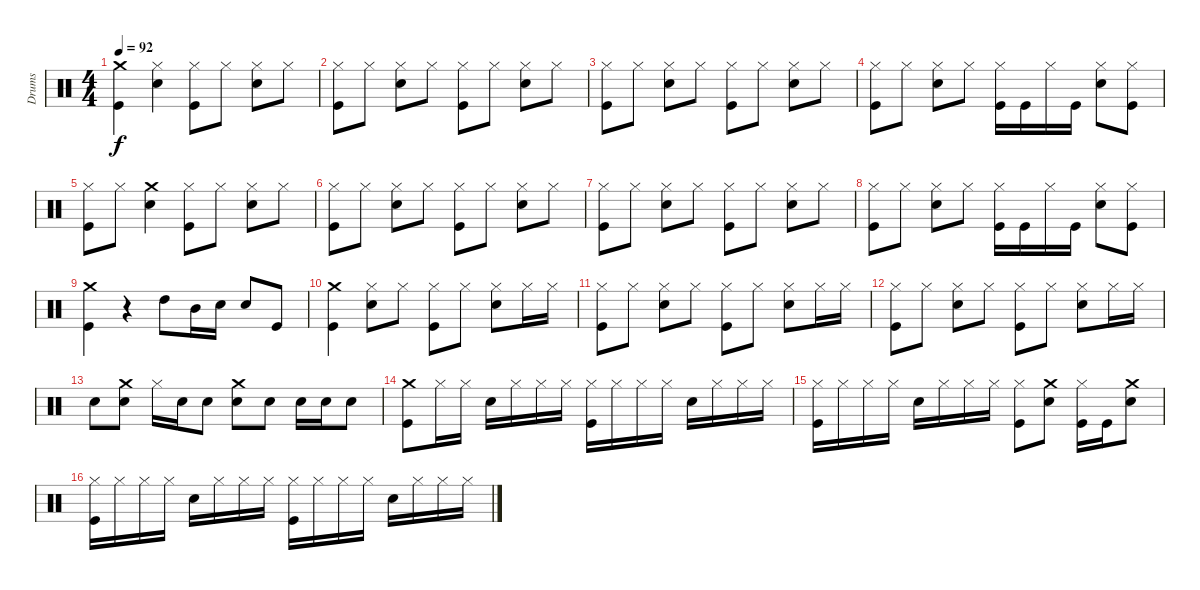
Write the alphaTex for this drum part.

\track ("Drums" "Drums") {instrument percussion}
\staff {score}
\articulation defaults
\ts (4 4)
\tempo 92
\clef neutral
\ks c
("Kick (hit)" "Crash medium (hit)").4{dy f} ("Electric Snare (hit)" "Hi-Hat (closed)").4 ("Kick (hit)" "Hi-Hat (closed)").8 "Hi-Hat (closed)".8 ("Electric Snare (hit)" "Hi-Hat (closed)").8 "Hi-Hat (closed)".8 |
("Kick (hit)" "Hi-Hat (closed)").8 "Hi-Hat (closed)".8 ("Electric Snare (hit)" "Hi-Hat (closed)").8 "Hi-Hat (closed)".8 ("Kick (hit)" "Hi-Hat (closed)").8 "Hi-Hat (closed)".8 ("Electric Snare (hit)" "Hi-Hat (closed)").8 "Hi-Hat (closed)".8 |
("Kick (hit)" "Hi-Hat (closed)").8 "Hi-Hat (closed)".8 ("Electric Snare (hit)" "Hi-Hat (closed)").8 "Hi-Hat (closed)".8 ("Kick (hit)" "Hi-Hat (closed)").8 "Hi-Hat (closed)".8 ("Electric Snare (hit)" "Hi-Hat (closed)").8 "Hi-Hat (closed)".8 |
("Kick (hit)" "Hi-Hat (closed)").8 "Hi-Hat (closed)".8 ("Electric Snare (hit)" "Hi-Hat (closed)").8 "Hi-Hat (closed)".8 ("Kick (hit)" "Hi-Hat (closed)").16 "Kick (hit)".16 "Hi-Hat (closed)".16 "Kick (hit)".16 ("Electric Snare (hit)" "Hi-Hat (closed)").8 ("Kick (hit)" "Hi-Hat (closed)").8 |
("Kick (hit)" "Hi-Hat (closed)").8 "Hi-Hat (closed)".8 ("Electric Snare (hit)" "Crash medium (hit)").4 ("Kick (hit)" "Hi-Hat (closed)").8 "Hi-Hat (closed)".8 ("Electric Snare (hit)" "Hi-Hat (closed)").8 "Hi-Hat (closed)".8 |
("Kick (hit)" "Hi-Hat (closed)").8 "Hi-Hat (closed)".8 ("Electric Snare (hit)" "Hi-Hat (closed)").8 "Hi-Hat (closed)".8 ("Kick (hit)" "Hi-Hat (closed)").8 "Hi-Hat (closed)".8 ("Electric Snare (hit)" "Hi-Hat (closed)").8 "Hi-Hat (closed)".8 |
("Kick (hit)" "Hi-Hat (closed)").8 "Hi-Hat (closed)".8 ("Electric Snare (hit)" "Hi-Hat (closed)").8 "Hi-Hat (closed)".8 ("Kick (hit)" "Hi-Hat (closed)").8 "Hi-Hat (closed)".8 ("Electric Snare (hit)" "Hi-Hat (closed)").8 "Hi-Hat (closed)".8 |
("Kick (hit)" "Hi-Hat (closed)").8 "Hi-Hat (closed)".8 ("Electric Snare (hit)" "Hi-Hat (closed)").8 "Hi-Hat (closed)".8 ("Kick (hit)" "Hi-Hat (closed)").16 "Kick (hit)".16 "Hi-Hat (closed)".16 "Kick (hit)".16 ("Electric Snare (hit)" "Hi-Hat (closed)").8 ("Kick (hit)" "Hi-Hat (closed)").8 |
("Kick (hit)" "Crash medium (hit)").4 r.4 "High Tom (hit)".8 "Mid Tom (hit)".16 "Electric Snare (hit)".16 "Electric Snare (hit)".8 "Kick (hit)".8 |
("Kick (hit)" "Crash medium (hit)").4 ("Electric Snare (hit)" "Hi-Hat (closed)").8 "Hi-Hat (closed)".8 ("Kick (hit)" "Hi-Hat (closed)").8 "Hi-Hat (closed)".8 ("Electric Snare (hit)" "Hi-Hat (closed)").8 "Hi-Hat (closed)".16 "Hi-Hat (closed)".16 |
("Kick (hit)" "Hi-Hat (closed)").8 "Hi-Hat (closed)".8 ("Electric Snare (hit)" "Hi-Hat (closed)").8 "Hi-Hat (closed)".8 ("Kick (hit)" "Hi-Hat (closed)").8 "Hi-Hat (closed)".8 ("Electric Snare (hit)" "Hi-Hat (closed)").8 "Hi-Hat (closed)".16 "Hi-Hat (closed)".16 |
("Kick (hit)" "Hi-Hat (closed)").8 "Hi-Hat (closed)".8 ("Electric Snare (hit)" "Hi-Hat (closed)").8 "Hi-Hat (closed)".8 ("Kick (hit)" "Hi-Hat (closed)").8 "Hi-Hat (closed)".8 ("Electric Snare (hit)" "Hi-Hat (closed)").8 "Hi-Hat (closed)".16 "Hi-Hat (closed)".16 |
"Electric Snare (hit)".8 ("Electric Snare (hit)" "Crash medium (hit)").8 "Hi-Hat (closed)".16 "Electric Snare (hit)".16 "Electric Snare (hit)".8 ("Electric Snare (hit)" "Crash medium (hit)").8 "Electric Snare (hit)".8 "Electric Snare (hit)".16 "Electric Snare (hit)".16 "Electric Snare (hit)".8 |
("Kick (hit)" "Crash medium (hit)").8 "Hi-Hat (closed)".16 "Hi-Hat (closed)".16 "Electric Snare (hit)".16 "Hi-Hat (closed)".16 "Hi-Hat (closed)".16 "Hi-Hat (closed)".16 ("Kick (hit)" "Hi-Hat (closed)").16 "Hi-Hat (closed)".16 "Hi-Hat (closed)".16 "Hi-Hat (closed)".16 "Electric Snare (hit)".16 "Hi-Hat (closed)".16 "Hi-Hat (closed)".16 "Hi-Hat (closed)".16 |
("Kick (hit)" "Hi-Hat (closed)").16 "Hi-Hat (closed)".16 "Hi-Hat (closed)".16 "Hi-Hat (closed)".16 "Electric Snare (hit)".16 "Hi-Hat (closed)".16 "Hi-Hat (closed)".16 "Hi-Hat (closed)".16 ("Kick (hit)" "Hi-Hat (closed)").8 ("Electric Snare (hit)" "Crash medium (hit)").8 ("Kick (hit)" "Hi-Hat (closed)").16 "Kick (hit)".16 ("Electric Snare (hit)" "Crash medium (hit)").8 |
("Kick (hit)" "Hi-Hat (closed)").16 "Hi-Hat (closed)".16 "Hi-Hat (closed)".16 "Hi-Hat (closed)".16 "Electric Snare (hit)".16 "Hi-Hat (closed)".16 "Hi-Hat (closed)".16 "Hi-Hat (closed)".16 ("Kick (hit)" "Hi-Hat (closed)").16 "Hi-Hat (closed)".16 "Hi-Hat (closed)".16 "Hi-Hat (closed)".16 "Electric Snare (hit)".16 "Hi-Hat (closed)".16 "Hi-Hat (closed)".16 "Hi-Hat (closed)".16
